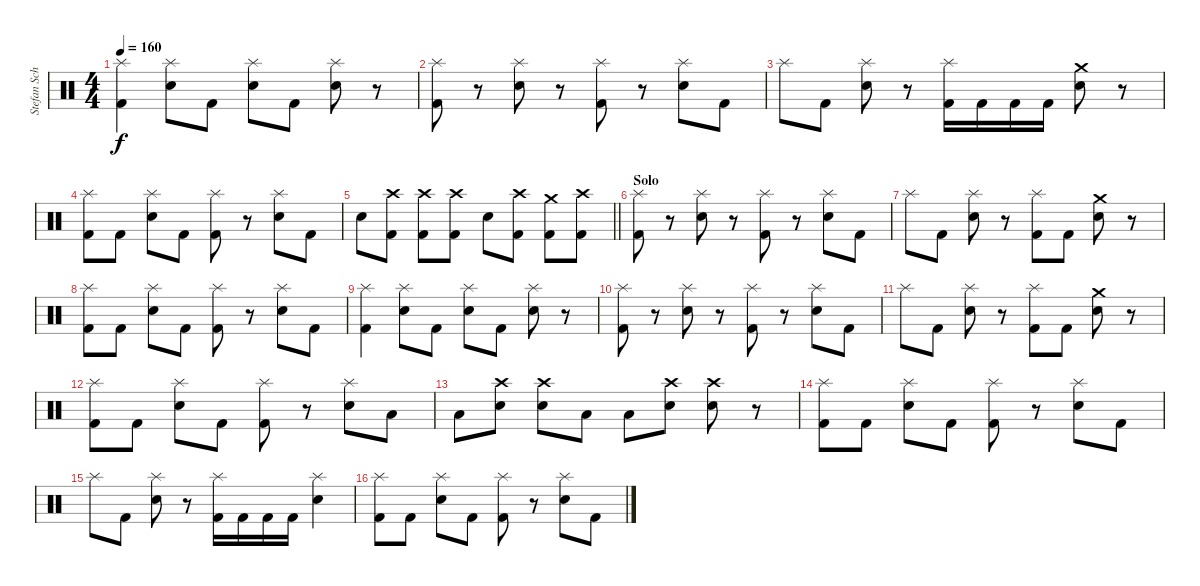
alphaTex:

\track ("Stefan Schwarzmann" "Stefan Sch") {instrument percussion}
\staff {score}
\articulation defaults
\ts (4 4)
\tempo 160
\clef neutral
\ks c
("Splash (hit)" "Kick (hit) 2").4{dy f} ("Splash (hit)" "Snare (hit) 2").8 "Kick (hit) 2".8 ("Splash (hit)" "Snare (hit) 2").8 "Kick (hit) 2".8 ("Splash (hit)" "Snare (hit) 2").8 r.8 |
("Splash (hit)" "Kick (hit) 2").8 r.8 ("Splash (hit)" "Snare (hit) 2").8 r.8 ("Splash (hit)" "Kick (hit) 2").8 r.8 ("Splash (hit)" "Snare (hit) 2").8 "Kick (hit) 2".8 |
"Splash (hit)".8 "Kick (hit) 2".8 ("Splash (hit)" "Snare (hit) 2").8 r.8 ("Splash (hit)" "Kick (hit) 2").16 "Kick (hit) 2".16 "Kick (hit) 2".16 "Kick (hit) 2".16 ("Crash medium (hit)" "Snare (hit) 2").8 r.8 |
("Splash (hit)" "Kick (hit) 2").8 "Kick (hit) 2".8 ("Splash (hit)" "Snare (hit) 2").8 "Kick (hit) 2".8 ("Splash (hit)" "Kick (hit) 2").8 r.8 ("Splash (hit)" "Snare (hit) 2").8 "Kick (hit) 2".8 |
\barLineRight lightlight "Snare (hit) 2".8
("Crash high (hit)" "Kick (hit) 2").8 ("Crash high (hit)" "Kick (hit) 2").8 ("Crash high (hit)" "Kick (hit) 2").8 "Snare (hit) 2".8 ("Crash high (hit)" "Kick (hit) 2").8 ("Crash medium (hit)" "Kick (hit) 2").8 ("Crash high (hit)" "Kick (hit) 2").8 |
\section ("" "Solo")
("Splash (hit)" "Kick (hit) 2").8 r.8 ("Splash (hit)" "Snare (hit) 2").8 r.8 ("Splash (hit)" "Kick (hit) 2").8 r.8 ("Splash (hit)" "Snare (hit) 2").8 "Kick (hit) 2".8 |
"Splash (hit)".8 "Kick (hit) 2".8 ("Splash (hit)" "Snare (hit) 2").8 r.8 ("Splash (hit)" "Kick (hit) 2").8 "Kick (hit) 2".8 ("Crash medium (hit)" "Snare (hit) 2").8 r.8 |
("Splash (hit)" "Kick (hit) 2").8 "Kick (hit) 2".8 ("Splash (hit)" "Snare (hit) 2").8 "Kick (hit) 2".8 ("Splash (hit)" "Kick (hit) 2").8 r.8 ("Splash (hit)" "Snare (hit) 2").8 "Kick (hit) 2".8 |
("Splash (hit)" "Kick (hit) 2").4 ("Splash (hit)" "Snare (hit) 2").8 "Kick (hit) 2".8 ("Splash (hit)" "Snare (hit) 2").8 "Kick (hit) 2".8 ("Splash (hit)" "Snare (hit) 2").8 r.8 |
("Splash (hit)" "Kick (hit) 2").8 r.8 ("Splash (hit)" "Snare (hit) 2").8 r.8 ("Splash (hit)" "Kick (hit) 2").8 r.8 ("Splash (hit)" "Snare (hit) 2").8 "Kick (hit) 2".8 |
"Splash (hit)".8 "Kick (hit) 2".8 ("Splash (hit)" "Snare (hit) 2").8 r.8 ("Splash (hit)" "Kick (hit) 2").8 "Kick (hit) 2".8 ("Crash medium (hit)" "Snare (hit) 2").8 r.8 |
("Splash (hit)" "Kick (hit) 2").8 "Kick (hit) 2".8 ("Splash (hit)" "Snare (hit) 2").8 "Kick (hit) 2".8 ("Splash (hit)" "Kick (hit) 2").8 r.8 ("Splash (hit)" "Snare (hit) 2").8 "Low Floor Tom (hit)".8 |
"Low Floor Tom (hit)".8 ("Crash high (hit)" "Snare (hit) 2").8 ("Crash high (hit)" "Snare (hit) 2").8 "Low Floor Tom (hit)".8 "Low Floor Tom (hit)".8 ("Crash high (hit)" "Snare (hit) 2").8 ("Crash high (hit)" "Snare (hit) 2").8 r.8 |
("Splash (hit)" "Kick (hit) 2").8 "Kick (hit) 2".8 ("Splash (hit)" "Snare (hit) 2").8 "Kick (hit) 2".8 ("Splash (hit)" "Kick (hit) 2").8 r.8 ("Splash (hit)" "Snare (hit) 2").8 "Kick (hit) 2".8 |
"Splash (hit)".8 "Kick (hit) 2".8 ("Splash (hit)" "Snare (hit) 2").8 r.8 ("Splash (hit)" "Kick (hit) 2").16 "Kick (hit) 2".16 "Kick (hit) 2".16 "Kick (hit) 2".16 ("Splash (hit)" "Snare (hit) 2").4 |
("Splash (hit)" "Kick (hit) 2").8 "Kick (hit) 2".8 ("Splash (hit)" "Snare (hit) 2").8 "Kick (hit) 2".8 ("Splash (hit)" "Kick (hit) 2").8 r.8 ("Splash (hit)" "Snare (hit) 2").8 "Kick (hit) 2".8
